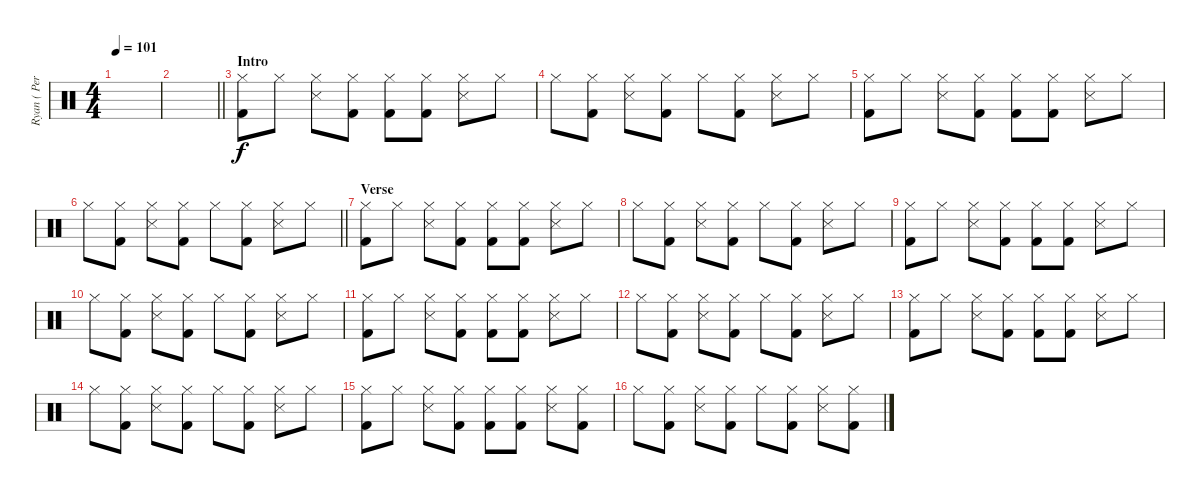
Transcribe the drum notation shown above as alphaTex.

\track ("Ryan ( Percussion )" "Ryan ( Per") {instrument percussion}
\staff {score}
\articulation defaults
\ts (4 4)
\tempo 101
\clef neutral
\ks c
|
\barLineRight lightlight
|
\section ("" "Intro")
("Hi-Hat (closed)" "Kick (hit) 2").8 "Hi-Hat (closed)".8 ("Hi-Hat (closed)" "Snare (side stick) 3").8 ("Hi-Hat (closed)" "Kick (hit) 2").8 ("Hi-Hat (closed)" "Kick (hit) 2").8 ("Hi-Hat (closed)" "Kick (hit) 2").8 ("Hi-Hat (closed)" "Snare (side stick) 3").8 "Hi-Hat (closed)".8 |
"Hi-Hat (closed)".8 ("Hi-Hat (closed)" "Kick (hit) 2").8 ("Hi-Hat (closed)" "Snare (side stick) 3").8 ("Hi-Hat (closed)" "Kick (hit) 2").8 "Hi-Hat (closed)".8 ("Hi-Hat (closed)" "Kick (hit) 2").8 ("Hi-Hat (closed)" "Snare (side stick) 3").8 "Hi-Hat (closed)".8 |
("Hi-Hat (closed)" "Kick (hit) 2").8 "Hi-Hat (closed)".8 ("Hi-Hat (closed)" "Snare (side stick) 3").8 ("Hi-Hat (closed)" "Kick (hit) 2").8 ("Hi-Hat (closed)" "Kick (hit) 2").8 ("Hi-Hat (closed)" "Kick (hit) 2").8 ("Hi-Hat (closed)" "Snare (side stick) 3").8 "Hi-Hat (closed)".8 |
\barLineRight lightlight "Hi-Hat (closed)".8
("Hi-Hat (closed)" "Kick (hit) 2").8 ("Hi-Hat (closed)" "Snare (side stick) 3").8 ("Hi-Hat (closed)" "Kick (hit) 2").8 "Hi-Hat (closed)".8 ("Hi-Hat (closed)" "Kick (hit) 2").8 ("Hi-Hat (closed)" "Snare (side stick) 3").8 "Hi-Hat (closed)".8 |
\section ("" "Verse")
("Hi-Hat (closed)" "Kick (hit) 2").8 "Hi-Hat (closed)".8 ("Hi-Hat (closed)" "Snare (side stick) 3").8 ("Hi-Hat (closed)" "Kick (hit) 2").8 ("Hi-Hat (closed)" "Kick (hit) 2").8 ("Hi-Hat (closed)" "Kick (hit) 2").8 ("Hi-Hat (closed)" "Snare (side stick) 3").8 "Hi-Hat (closed)".8 |
"Hi-Hat (closed)".8 ("Hi-Hat (closed)" "Kick (hit) 2").8 ("Hi-Hat (closed)" "Snare (side stick) 3").8 ("Hi-Hat (closed)" "Kick (hit) 2").8 "Hi-Hat (closed)".8 ("Hi-Hat (closed)" "Kick (hit) 2").8 ("Hi-Hat (closed)" "Snare (side stick) 3").8 "Hi-Hat (closed)".8 |
("Hi-Hat (closed)" "Kick (hit) 2").8 "Hi-Hat (closed)".8 ("Hi-Hat (closed)" "Snare (side stick) 3").8 ("Hi-Hat (closed)" "Kick (hit) 2").8 ("Hi-Hat (closed)" "Kick (hit) 2").8 ("Hi-Hat (closed)" "Kick (hit) 2").8 ("Hi-Hat (closed)" "Snare (side stick) 3").8 "Hi-Hat (closed)".8 |
"Hi-Hat (closed)".8 ("Hi-Hat (closed)" "Kick (hit) 2").8 ("Hi-Hat (closed)" "Snare (side stick) 3").8 ("Hi-Hat (closed)" "Kick (hit) 2").8 "Hi-Hat (closed)".8 ("Hi-Hat (closed)" "Kick (hit) 2").8 ("Hi-Hat (closed)" "Snare (side stick) 3").8 "Hi-Hat (closed)".8 |
("Hi-Hat (closed)" "Kick (hit) 2").8 "Hi-Hat (closed)".8 ("Hi-Hat (closed)" "Snare (side stick) 3").8 ("Hi-Hat (closed)" "Kick (hit) 2").8 ("Hi-Hat (closed)" "Kick (hit) 2").8 ("Hi-Hat (closed)" "Kick (hit) 2").8 ("Hi-Hat (closed)" "Snare (side stick) 3").8 "Hi-Hat (closed)".8 |
"Hi-Hat (closed)".8 ("Hi-Hat (closed)" "Kick (hit) 2").8 ("Hi-Hat (closed)" "Snare (side stick) 3").8 ("Hi-Hat (closed)" "Kick (hit) 2").8 "Hi-Hat (closed)".8 ("Hi-Hat (closed)" "Kick (hit) 2").8 ("Hi-Hat (closed)" "Snare (side stick) 3").8 "Hi-Hat (closed)".8 |
("Hi-Hat (closed)" "Kick (hit) 2").8 "Hi-Hat (closed)".8 ("Hi-Hat (closed)" "Snare (side stick) 3").8 ("Hi-Hat (closed)" "Kick (hit) 2").8 ("Hi-Hat (closed)" "Kick (hit) 2").8 ("Hi-Hat (closed)" "Kick (hit) 2").8 ("Hi-Hat (closed)" "Snare (side stick) 3").8 "Hi-Hat (closed)".8 |
"Hi-Hat (closed)".8 ("Hi-Hat (closed)" "Kick (hit) 2").8 ("Hi-Hat (closed)" "Snare (side stick) 3").8 ("Hi-Hat (closed)" "Kick (hit) 2").8 "Hi-Hat (closed)".8 ("Hi-Hat (closed)" "Kick (hit) 2").8 ("Hi-Hat (closed)" "Snare (side stick) 3").8 "Hi-Hat (closed)".8 |
("Hi-Hat (closed)" "Kick (hit) 2").8 "Hi-Hat (closed)".8 ("Hi-Hat (closed)" "Snare (side stick) 3").8 ("Hi-Hat (closed)" "Kick (hit) 2").8 ("Hi-Hat (closed)" "Kick (hit) 2").8 ("Hi-Hat (closed)" "Kick (hit) 2").8 ("Hi-Hat (closed)" "Snare (side stick) 3").8 ("Hi-Hat (closed)" "Kick (hit) 2").8 |
"Hi-Hat (closed)".8 ("Hi-Hat (closed)" "Kick (hit) 2").8 ("Hi-Hat (closed)" "Snare (side stick) 3").8 ("Hi-Hat (closed)" "Kick (hit) 2").8 "Hi-Hat (closed)".8 ("Hi-Hat (closed)" "Kick (hit) 2").8 ("Hi-Hat (closed)" "Snare (side stick) 3").8 ("Hi-Hat (closed)" "Kick (hit) 2").8
